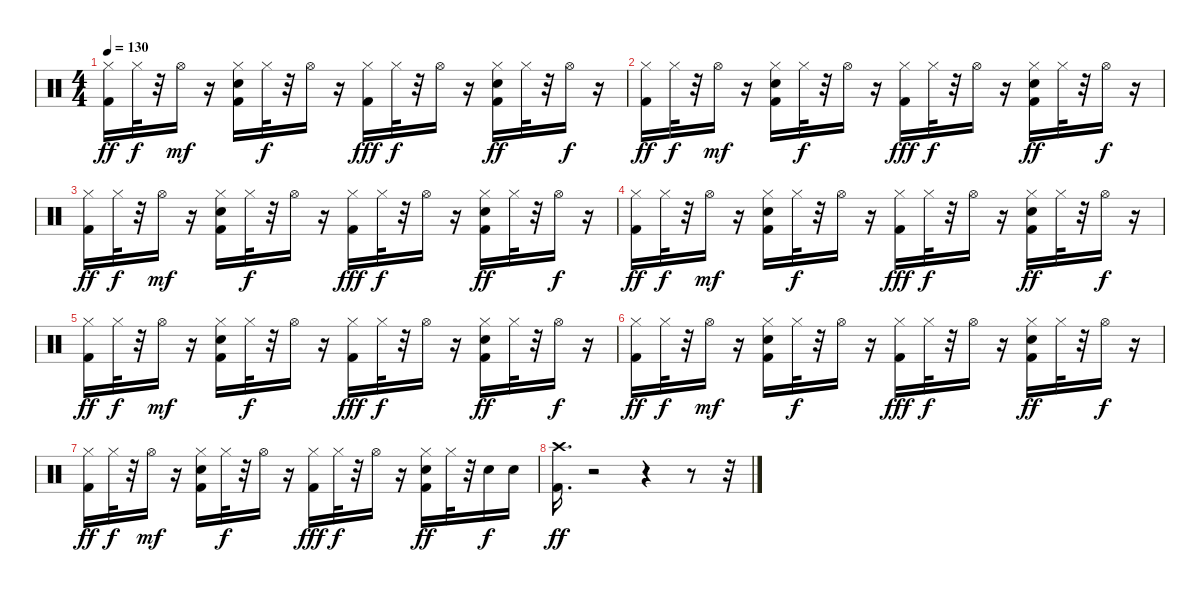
\track "" {instrument percussion}
\staff {score}
\articulation defaults
\ts (4 4)
\tempo 130
\clef neutral
\ks c
("Kick (hit) 2" "Hi-Hat (closed)").16{dy ff} "Hi-Hat (closed)".32{dy f} r.32 "Hi-Hat (open)".16{dy mf} r.16 ("Kick (hit) 2" "Electric Snare (hit)" "Hi-Hat (closed)").16 "Hi-Hat (closed)".32{dy f} r.32 "Hi-Hat (open)".16 r.16 ("Kick (hit) 2" "Hi-Hat (closed)").16{dy fff} "Hi-Hat (closed)".32{dy f} r.32 "Hi-Hat (open)".16 r.16 ("Kick (hit) 2" "Electric Snare (hit)" "Hi-Hat (closed)").16{dy ff} "Hi-Hat (closed)".32 r.32 "Hi-Hat (open)".16{dy f} r.16 |
("Kick (hit) 2" "Hi-Hat (closed)").16{dy ff} "Hi-Hat (closed)".32{dy f} r.32 "Hi-Hat (open)".16{dy mf} r.16 ("Kick (hit) 2" "Electric Snare (hit)" "Hi-Hat (closed)").16 "Hi-Hat (closed)".32{dy f} r.32 "Hi-Hat (open)".16 r.16 ("Kick (hit) 2" "Hi-Hat (closed)").16{dy fff} "Hi-Hat (closed)".32{dy f} r.32 "Hi-Hat (open)".16 r.16 ("Kick (hit) 2" "Electric Snare (hit)" "Hi-Hat (closed)").16{dy ff} "Hi-Hat (closed)".32 r.32 "Hi-Hat (open)".16{dy f} r.16 |
("Kick (hit) 2" "Hi-Hat (closed)").16{dy ff} "Hi-Hat (closed)".32{dy f} r.32 "Hi-Hat (open)".16{dy mf} r.16 ("Kick (hit) 2" "Electric Snare (hit)" "Hi-Hat (closed)").16 "Hi-Hat (closed)".32{dy f} r.32 "Hi-Hat (open)".16 r.16 ("Kick (hit) 2" "Hi-Hat (closed)").16{dy fff} "Hi-Hat (closed)".32{dy f} r.32 "Hi-Hat (open)".16 r.16 ("Kick (hit) 2" "Electric Snare (hit)" "Hi-Hat (closed)").16{dy ff} "Hi-Hat (closed)".32 r.32 "Hi-Hat (open)".16{dy f} r.16 |
("Kick (hit) 2" "Hi-Hat (closed)").16{dy ff} "Hi-Hat (closed)".32{dy f} r.32 "Hi-Hat (open)".16{dy mf} r.16 ("Kick (hit) 2" "Electric Snare (hit)" "Hi-Hat (closed)").16 "Hi-Hat (closed)".32{dy f} r.32 "Hi-Hat (open)".16 r.16 ("Kick (hit) 2" "Hi-Hat (closed)").16{dy fff} "Hi-Hat (closed)".32{dy f} r.32 "Hi-Hat (open)".16 r.16 ("Kick (hit) 2" "Electric Snare (hit)" "Hi-Hat (closed)").16{dy ff} "Hi-Hat (closed)".32 r.32 "Hi-Hat (open)".16{dy f} r.16 |
("Kick (hit) 2" "Hi-Hat (closed)").16{dy ff} "Hi-Hat (closed)".32{dy f} r.32 "Hi-Hat (open)".16{dy mf} r.16 ("Kick (hit) 2" "Electric Snare (hit)" "Hi-Hat (closed)").16 "Hi-Hat (closed)".32{dy f} r.32 "Hi-Hat (open)".16 r.16 ("Kick (hit) 2" "Hi-Hat (closed)").16{dy fff} "Hi-Hat (closed)".32{dy f} r.32 "Hi-Hat (open)".16 r.16 ("Kick (hit) 2" "Electric Snare (hit)" "Hi-Hat (closed)").16{dy ff} "Hi-Hat (closed)".32 r.32 "Hi-Hat (open)".16{dy f} r.16 |
("Kick (hit) 2" "Hi-Hat (closed)").16{dy ff} "Hi-Hat (closed)".32{dy f} r.32 "Hi-Hat (open)".16{dy mf} r.16 ("Kick (hit) 2" "Electric Snare (hit)" "Hi-Hat (closed)").16 "Hi-Hat (closed)".32{dy f} r.32 "Hi-Hat (open)".16 r.16 ("Kick (hit) 2" "Hi-Hat (closed)").16{dy fff} "Hi-Hat (closed)".32{dy f} r.32 "Hi-Hat (open)".16 r.16 ("Kick (hit) 2" "Electric Snare (hit)" "Hi-Hat (closed)").16{dy ff} "Hi-Hat (closed)".32 r.32 "Hi-Hat (open)".16{dy f} r.16 |
("Kick (hit) 2" "Hi-Hat (closed)").16{dy ff} "Hi-Hat (closed)".32{dy f} r.32 "Hi-Hat (open)".16{dy mf} r.16 ("Kick (hit) 2" "Electric Snare (hit)" "Hi-Hat (closed)").16 "Hi-Hat (closed)".32{dy f} r.32 "Hi-Hat (open)".16 r.16 ("Kick (hit) 2" "Hi-Hat (closed)").16{dy fff} "Hi-Hat (closed)".32{dy f} r.32 "Hi-Hat (open)".16 r.16 ("Kick (hit) 2" "Electric Snare (hit)" "Hi-Hat (closed)").16{dy ff} "Hi-Hat (closed)".32 r.32 "Electric Snare (hit)".16{dy f} "Electric Snare (hit)".16 |
("Kick (hit) 2" "Crash high (hit)").16{d dy ff} r.2 r.4 r.8 r.32
